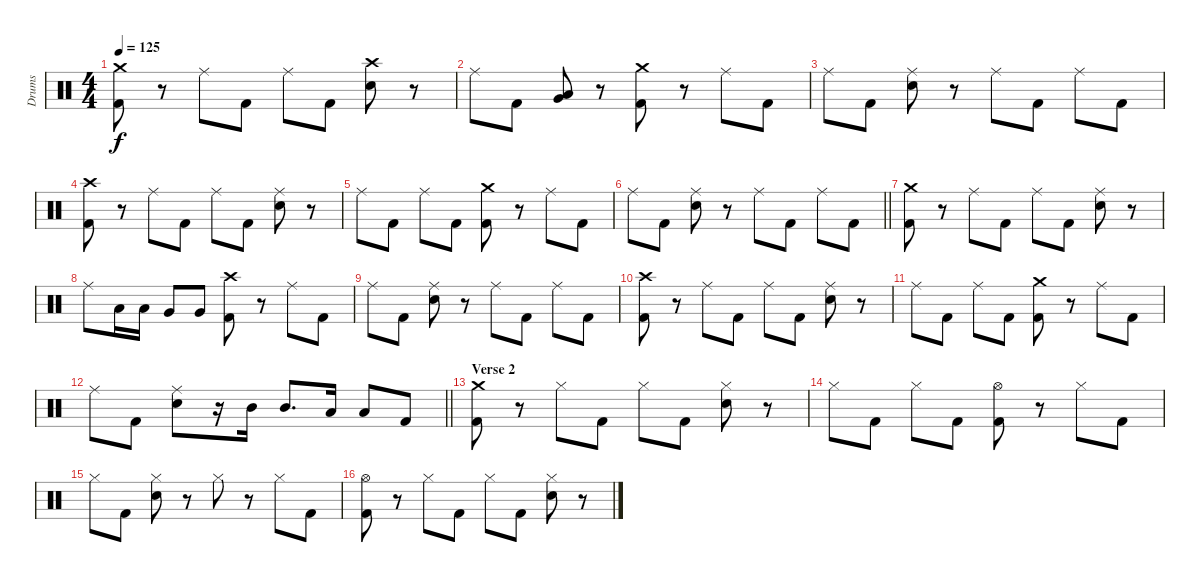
\track ("Drums" "Drums") {instrument percussion}
\staff {score}
\articulation defaults
\ts (4 4)
\tempo 125
\clef neutral
\ks c
("Crash medium (hit)" "Kick (hit) 2").8{dy f volume 16} r.8 "Ride (middle)".8 "Kick (hit) 2".8 "Ride (middle)".8 "Kick (hit) 2".8 ("Crash high (hit)" "Electric Snare (hit)").8 r.8 |
"Ride (middle)".8 "Kick (hit) 2".8 ("Low Tom (hit)" "Very Low Tom (hit)").8 r.8 ("Crash medium (hit)" "Kick (hit) 2").8 r.8 "Ride (middle)".8 "Kick (hit) 2".8 |
"Ride (middle)".8 "Kick (hit) 2".8 ("Ride (middle)" "Electric Snare (hit)").8 r.8 "Ride (middle)".8 "Kick (hit) 2".8 "Ride (middle)".8 "Kick (hit) 2".8 |
("Crash high (hit)" "Kick (hit) 2").8{volume 16} r.8 "Ride (middle)".8 "Kick (hit) 2".8 "Ride (middle)".8 "Kick (hit) 2".8 ("Ride (middle)" "Electric Snare (hit)").8 r.8 |
"Ride (middle)".8 "Kick (hit) 2".8 "Ride (middle)".8 "Kick (hit) 2".8 ("Crash medium (hit)" "Kick (hit) 2").8 r.8 "Ride (middle)".8 "Kick (hit) 2".8 |
\barLineRight lightlight "Ride (middle)".8 "Kick (hit) 2".8
("Ride (middle)" "Electric Snare (hit)").8 r.8 "Ride (middle)".8 "Kick (hit) 2".8 "Ride (middle)".8 "Kick (hit) 2".8 |
\section ("" "")
("Crash medium (hit)" "Kick (hit) 2").8{volume 16} r.8 "Ride (middle)".8 "Kick (hit) 2".8 "Ride (middle)".8 "Kick (hit) 2".8 ("Ride (middle)" "Electric Snare (hit)").8 r.8 |
"Ride (middle)".8 "Low Tom (hit)".16 "Low Tom (hit)".16 "Very Low Tom (hit)".8 "Very Low Tom (hit)".8 ("Crash high (hit)" "Kick (hit) 2").8 r.8 "Ride (middle)".8 "Kick (hit) 2".8 |
"Ride (middle)".8 "Kick (hit) 2".8 ("Ride (middle)" "Electric Snare (hit)").8 r.8 "Ride (middle)".8 "Kick (hit) 2".8 "Ride (middle)".8 "Kick (hit) 2".8 |
("Crash high (hit)" "Kick (hit) 2").8{volume 16} r.8 "Ride (middle)".8 "Kick (hit) 2".8 "Ride (middle)".8 "Kick (hit) 2".8 ("Ride (middle)" "Electric Snare (hit)").8 r.8 |
"Ride (middle)".8 "Kick (hit) 2".8 "Ride (middle)".8 "Kick (hit) 2".8 ("Crash medium (hit)" "Kick (hit) 2").8 r.8 "Ride (middle)".8 "Kick (hit) 2".8 |
\barLineRight lightlight "Ride (middle)".8 "Kick (hit) 2".8
("Ride (middle)" "Electric Snare (hit)").8 r.16 "Mid Tom (hit)".16 "Mid Tom (hit)".8{d} "Low Tom (hit)".16 "Low Tom (hit)".8 "Kick (hit) 2".8 |
\section ("" "Verse 2")
("Crash medium (hit)" "Kick (hit) 2").8{volume 16} r.8 "Hi-Hat (closed)".8 "Kick (hit) 2".8 "Hi-Hat (closed)".8 "Kick (hit) 2".8 ("Hi-Hat (closed)" "Electric Snare (hit)").8 r.8 |
"Hi-Hat (closed)".8 "Kick (hit) 2".8 "Hi-Hat (closed)".8 "Kick (hit) 2".8 ("Hi-Hat (open)" "Kick (hit) 2").8 r.8 "Hi-Hat (closed)".8 "Kick (hit) 2".8 |
"Hi-Hat (closed)".8 "Kick (hit) 2".8 ("Hi-Hat (closed)" "Electric Snare (hit)").8 r.8 "Hi-Hat (closed)".8 r.8 "Hi-Hat (closed)".8 "Kick (hit) 2".8 |
("Hi-Hat (open)" "Kick (hit) 2").8 r.8 "Hi-Hat (closed)".8 "Kick (hit) 2".8 "Hi-Hat (closed)".8 "Kick (hit) 2".8 ("Hi-Hat (closed)" "Electric Snare (hit)").8 r.8
